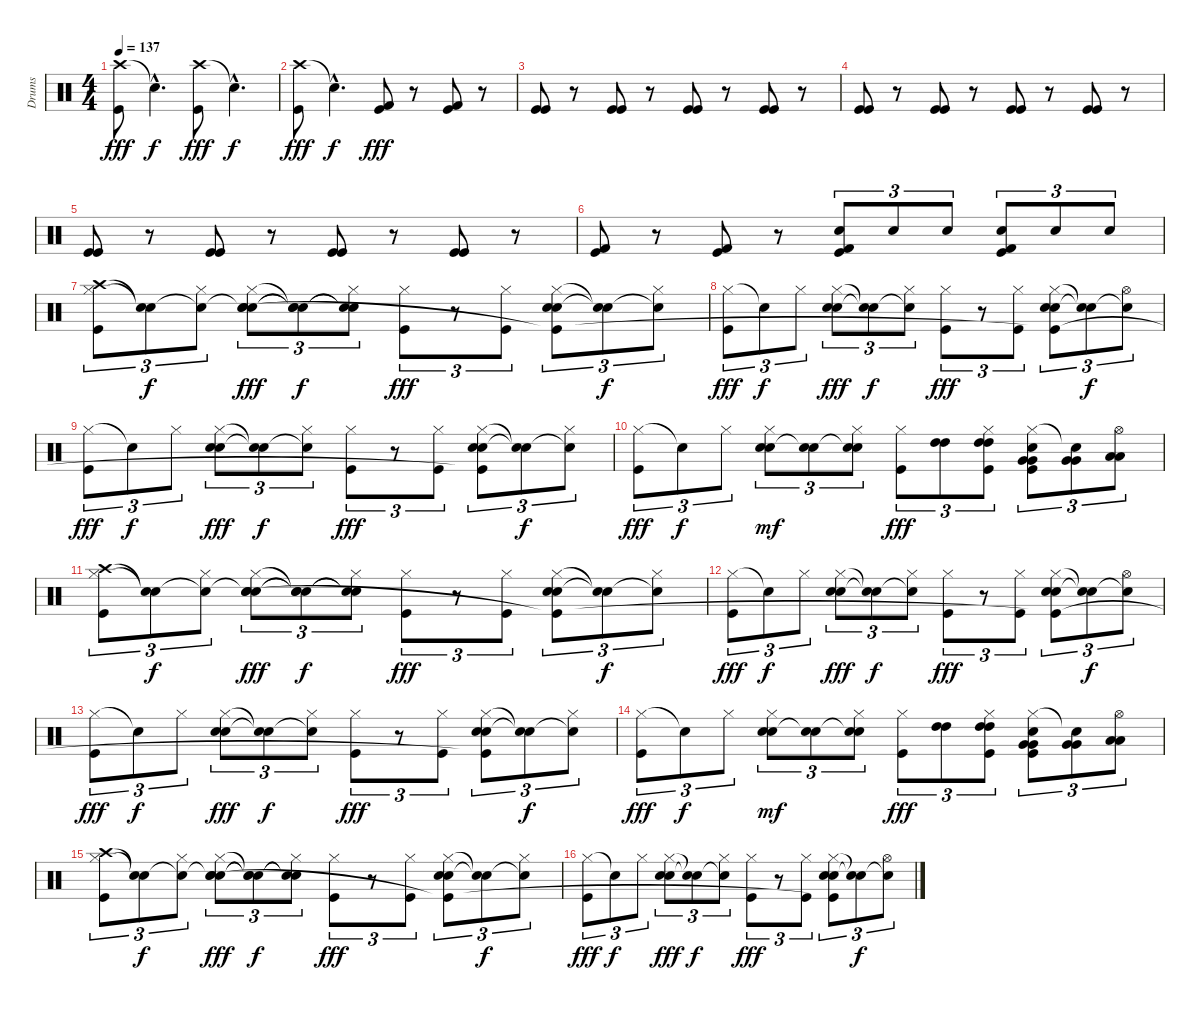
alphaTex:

\track ("Drums" "Drums") {instrument percussion}
\staff {score}
\articulation defaults
\ts (4 4)
\tempo 137
\clef neutral
\ks c
("Crash high (hit)" "Kick (hit)").8{dy fff} "Snare (hit)"{hac t}.4{d dy f} ("Crash high (hit)" "Kick (hit)").8{dy fff} "Snare (hit)"{hac t}.4{d dy f} |
("Crash high (hit)" "Kick (hit)").8{dy fff} "Snare (hit)"{hac t}.4{d dy f} ("Kick (hit) 2" "Kick (hit)").8{dy fff} r.8 ("Kick (hit) 2" "Kick (hit)").8 r.8 |
("Kick (hit)" "Kick (hit)").8 r.8 ("Kick (hit)" "Kick (hit)").8 r.8 ("Kick (hit)" "Kick (hit)").8 r.8 ("Kick (hit)" "Kick (hit)").8 r.8 |
("Kick (hit)" "Kick (hit)").8 r.8 ("Kick (hit)" "Kick (hit)").8 r.8 ("Kick (hit)" "Kick (hit)").8 r.8 ("Kick (hit)" "Kick (hit)").8 r.8 |
("Kick (hit)" "Kick (hit)").8 r.8 ("Kick (hit)" "Kick (hit)").8 r.8 ("Kick (hit)" "Kick (hit)").8 r.8 ("Kick (hit)" "Kick (hit)").8 r.8 |
("Kick (hit) 2" "Kick (hit)").8 r.8 ("Kick (hit) 2" "Kick (hit)").8 r.8 ("Kick (hit) 2" "Electric Snare (hit)" "Kick (hit)").8{tu (3 2)} "Electric Snare (hit)".8{tu (3 2)} "Electric Snare (hit)".8{tu (3 2)} ("Kick (hit) 2" "Electric Snare (hit)" "Kick (hit)").8{tu (3 2)} "Electric Snare (hit)".8{tu (3 2)} "Electric Snare (hit)".8{tu (3 2)} |
("Crash high (hit)" "Hi-Hat (closed)" "Kick (hit)").8{tu (3 2)} ("Snare (hit)"{t} "Snare (hit)"{t}).8{tu (3 2) dy f} ("Snare (hit)"{t} "Hi-Hat (closed)").8{tu (3 2)} ("Snare (hit)"{t} "Hand Clap (hit)" "Hi-Hat (closed)" "Electric Snare (hit)").8{tu (3 2) dy fff} ("Snare (hit)"{t} "Snare (hit)"{t} "Snare (hit)"{t}).8{tu (3 2) dy f} ("Snare (hit)"{t} "Snare (hit)"{t} "Hi-Hat (closed)").8{tu (3 2)} ("Hi-Hat (closed)" "Kick (hit)").8{tu (3 2) dy fff} r.8{tu (3 2)} ("Hi-Hat (closed)" "Kick (hit)").8{tu (3 2)} ("Hand Clap (hit)" "Hi-Hat (closed)" "Electric Snare (hit)" "Kick (hit)"{t}).8{tu (3 2)} ("Snare (hit)"{t} "Snare (hit)"{t}).8{tu (3 2) dy f} ("Snare (hit)"{t} "Hi-Hat (closed)").8{tu (3 2)} |
("Hi-Hat (closed)" "Kick (hit)").8{tu (3 2) dy fff} "Snare (hit)"{t}.8{tu (3 2) dy f} "Hi-Hat (closed)".8{tu (3 2)} ("Hand Clap (hit)" "Hi-Hat (closed)" "Electric Snare (hit)").8{tu (3 2) dy fff} ("Snare (hit)"{t} "Snare (hit)"{t}).8{tu (3 2) dy f} ("Snare (hit)"{t} "Hi-Hat (closed)").8{tu (3 2)} ("Hi-Hat (closed)" "Kick (hit)").8{tu (3 2) dy fff} r.8{tu (3 2)} ("Hi-Hat (closed)" "Kick (hit)").8{tu (3 2)} ("Hand Clap (hit)" "Hi-Hat (closed)" "Electric Snare (hit)" "Kick (hit)"{t}).8{tu (3 2)} ("Snare (hit)"{t} "Snare (hit)"{t}).8{tu (3 2) dy f} ("Snare (hit)"{t} "Hi-Hat (open)").8{tu (3 2)} |
("Hi-Hat (closed)" "Kick (hit)").8{tu (3 2) dy fff} "Snare (hit)"{t}.8{tu (3 2) dy f} "Hi-Hat (closed)".8{tu (3 2)} ("Hand Clap (hit)" "Hi-Hat (closed)" "Electric Snare (hit)").8{tu (3 2) dy fff} ("Snare (hit)"{t} "Snare (hit)"{t}).8{tu (3 2) dy f} ("Snare (hit)"{t} "Hi-Hat (closed)").8{tu (3 2)} ("Hi-Hat (closed)" "Kick (hit)").8{tu (3 2) dy fff} r.8{tu (3 2)} ("Hi-Hat (closed)" "Kick (hit)").8{tu (3 2)} ("Hand Clap (hit)" "Hi-Hat (closed)" "Electric Snare (hit)" "Kick (hit)"{t}).8{tu (3 2)} ("Snare (hit)"{t} "Snare (hit)"{t}).8{tu (3 2) dy f} ("Snare (hit)"{t} "Hi-Hat (closed)").8{tu (3 2)} |
("Hi-Hat (closed)" "Kick (hit)").8{tu (3 2) dy fff} "Snare (hit)"{t}.8{tu (3 2) dy f} "Hi-Hat (closed)".8{tu (3 2)} ("Hand Clap (hit)" "Hi-Hat (closed)" "Electric Snare (hit)").8{tu (3 2) dy mf} ("Snare (hit)"{t} "Electric Snare (hit)").8{tu (3 2)} ("Snare (hit)"{t} "Hi-Hat (closed)" "Electric Snare (hit)").8{tu (3 2)} ("Hi-Hat (closed)" "Kick (hit)").8{tu (3 2) dy fff} ("High Tom (hit)" "High Tom (hit)").8{tu (3 2)} ("High Tom (hit)" "High Tom (hit)" "Hi-Hat (closed)" "Kick (hit)").8{tu (3 2)} ("Very Low Tom (hit)" "Very Low Tom (hit)" "Hi-Hat (closed)" "Electric Snare (hit)" "Kick (hit)").8{tu (3 2)} ("Very Low Tom (hit)" "Very Low Tom (hit)" "Snare (hit)"{t}).8{tu (3 2)} ("Low Floor Tom (hit)" "Low Floor Tom (hit)" "Hi-Hat (open)").8{tu (3 2)} |
("Crash high (hit)" "Hi-Hat (closed)" "Kick (hit)").8{tu (3 2)} ("Snare (hit)"{t} "Snare (hit)"{t}).8{tu (3 2) dy f} ("Snare (hit)"{t} "Hi-Hat (closed)").8{tu (3 2)} ("Snare (hit)"{t} "Hand Clap (hit)" "Hi-Hat (closed)" "Electric Snare (hit)").8{tu (3 2) dy fff} ("Snare (hit)"{t} "Snare (hit)"{t} "Snare (hit)"{t}).8{tu (3 2) dy f} ("Snare (hit)"{t} "Snare (hit)"{t} "Hi-Hat (closed)").8{tu (3 2)} ("Hi-Hat (closed)" "Kick (hit)").8{tu (3 2) dy fff} r.8{tu (3 2)} ("Hi-Hat (closed)" "Kick (hit)").8{tu (3 2)} ("Hand Clap (hit)" "Hi-Hat (closed)" "Electric Snare (hit)" "Kick (hit)"{t}).8{tu (3 2)} ("Snare (hit)"{t} "Snare (hit)"{t}).8{tu (3 2) dy f} ("Snare (hit)"{t} "Hi-Hat (closed)").8{tu (3 2)} |
("Hi-Hat (closed)" "Kick (hit)").8{tu (3 2) dy fff} "Snare (hit)"{t}.8{tu (3 2) dy f} "Hi-Hat (closed)".8{tu (3 2)} ("Hand Clap (hit)" "Hi-Hat (closed)" "Electric Snare (hit)").8{tu (3 2) dy fff} ("Snare (hit)"{t} "Snare (hit)"{t}).8{tu (3 2) dy f} ("Snare (hit)"{t} "Hi-Hat (closed)").8{tu (3 2)} ("Hi-Hat (closed)" "Kick (hit)").8{tu (3 2) dy fff} r.8{tu (3 2)} ("Hi-Hat (closed)" "Kick (hit)").8{tu (3 2)} ("Hand Clap (hit)" "Hi-Hat (closed)" "Electric Snare (hit)" "Kick (hit)"{t}).8{tu (3 2)} ("Snare (hit)"{t} "Snare (hit)"{t}).8{tu (3 2) dy f} ("Snare (hit)"{t} "Hi-Hat (open)").8{tu (3 2)} |
("Hi-Hat (closed)" "Kick (hit)").8{tu (3 2) dy fff} "Snare (hit)"{t}.8{tu (3 2) dy f} "Hi-Hat (closed)".8{tu (3 2)} ("Hand Clap (hit)" "Hi-Hat (closed)" "Electric Snare (hit)").8{tu (3 2) dy fff} ("Snare (hit)"{t} "Snare (hit)"{t}).8{tu (3 2) dy f} ("Snare (hit)"{t} "Hi-Hat (closed)").8{tu (3 2)} ("Hi-Hat (closed)" "Kick (hit)").8{tu (3 2) dy fff} r.8{tu (3 2)} ("Hi-Hat (closed)" "Kick (hit)").8{tu (3 2)} ("Hand Clap (hit)" "Hi-Hat (closed)" "Electric Snare (hit)" "Kick (hit)"{t}).8{tu (3 2)} ("Snare (hit)"{t} "Snare (hit)"{t}).8{tu (3 2) dy f} ("Snare (hit)"{t} "Hi-Hat (closed)").8{tu (3 2)} |
("Hi-Hat (closed)" "Kick (hit)").8{tu (3 2) dy fff} "Snare (hit)"{t}.8{tu (3 2) dy f} "Hi-Hat (closed)".8{tu (3 2)} ("Hand Clap (hit)" "Hi-Hat (closed)" "Electric Snare (hit)").8{tu (3 2) dy mf} ("Snare (hit)"{t} "Electric Snare (hit)").8{tu (3 2)} ("Snare (hit)"{t} "Hi-Hat (closed)" "Electric Snare (hit)").8{tu (3 2)} ("Hi-Hat (closed)" "Kick (hit)").8{tu (3 2) dy fff} ("High Tom (hit)" "High Tom (hit)").8{tu (3 2)} ("High Tom (hit)" "High Tom (hit)" "Hi-Hat (closed)" "Kick (hit)").8{tu (3 2)} ("Very Low Tom (hit)" "Very Low Tom (hit)" "Hi-Hat (closed)" "Electric Snare (hit)" "Kick (hit)").8{tu (3 2)} ("Very Low Tom (hit)" "Very Low Tom (hit)" "Snare (hit)"{t}).8{tu (3 2)} ("Low Floor Tom (hit)" "Low Floor Tom (hit)" "Hi-Hat (open)").8{tu (3 2)} |
("Crash high (hit)" "Hi-Hat (closed)" "Kick (hit)").8{tu (3 2)} ("Snare (hit)"{t} "Snare (hit)"{t}).8{tu (3 2) dy f} ("Snare (hit)"{t} "Hi-Hat (closed)").8{tu (3 2)} ("Snare (hit)"{t} "Hand Clap (hit)" "Hi-Hat (closed)" "Electric Snare (hit)").8{tu (3 2) dy fff} ("Snare (hit)"{t} "Snare (hit)"{t} "Snare (hit)"{t}).8{tu (3 2) dy f} ("Snare (hit)"{t} "Snare (hit)"{t} "Hi-Hat (closed)").8{tu (3 2)} ("Hi-Hat (closed)" "Kick (hit)").8{tu (3 2) dy fff} r.8{tu (3 2)} ("Hi-Hat (closed)" "Kick (hit)").8{tu (3 2)} ("Hand Clap (hit)" "Hi-Hat (closed)" "Electric Snare (hit)" "Kick (hit)"{t}).8{tu (3 2)} ("Snare (hit)"{t} "Snare (hit)"{t}).8{tu (3 2) dy f} ("Snare (hit)"{t} "Hi-Hat (closed)").8{tu (3 2)} |
("Hi-Hat (closed)" "Kick (hit)").8{tu (3 2) dy fff} "Snare (hit)"{t}.8{tu (3 2) dy f} "Hi-Hat (closed)".8{tu (3 2)} ("Hand Clap (hit)" "Hi-Hat (closed)" "Electric Snare (hit)").8{tu (3 2) dy fff} ("Snare (hit)"{t} "Snare (hit)"{t}).8{tu (3 2) dy f} ("Snare (hit)"{t} "Hi-Hat (closed)").8{tu (3 2)} ("Hi-Hat (closed)" "Kick (hit)").8{tu (3 2) dy fff} r.8{tu (3 2)} ("Hi-Hat (closed)" "Kick (hit)").8{tu (3 2)} ("Hand Clap (hit)" "Hi-Hat (closed)" "Electric Snare (hit)" "Kick (hit)"{t}).8{tu (3 2)} ("Snare (hit)"{t} "Snare (hit)"{t}).8{tu (3 2) dy f} ("Snare (hit)"{t} "Hi-Hat (open)").8{tu (3 2)}
